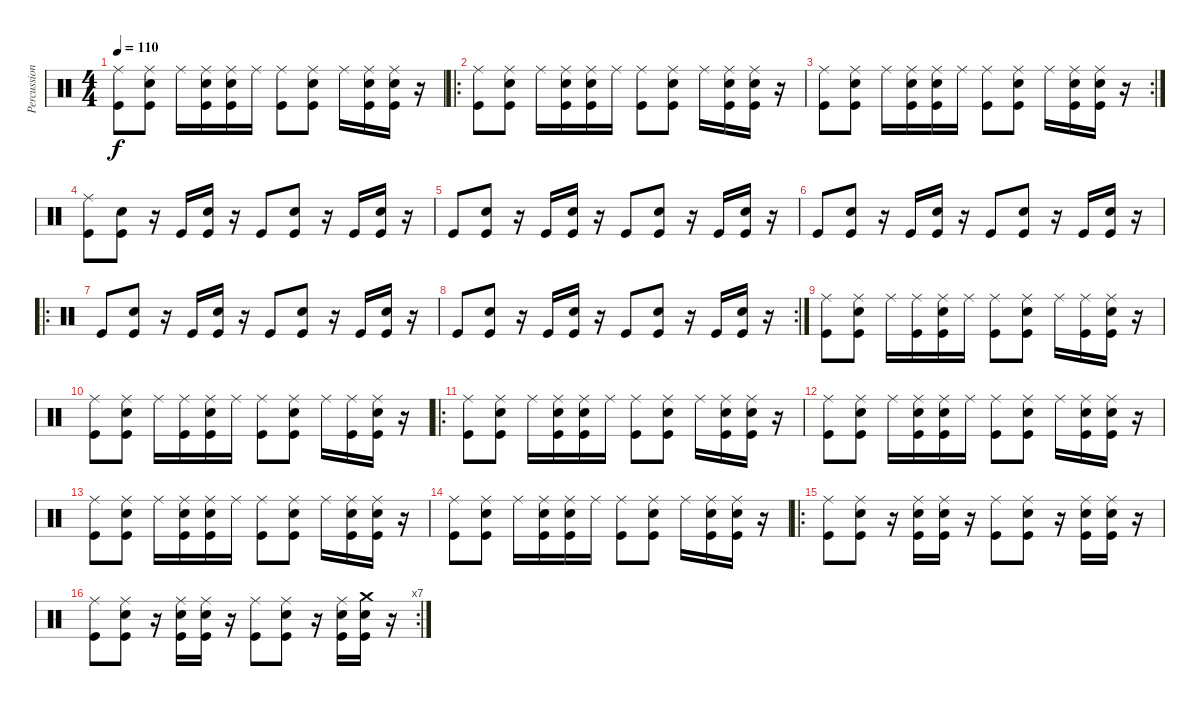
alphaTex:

\track ("Percussion" "Percussion") {instrument percussion}
\staff {score}
\articulation defaults
\ts (4 4)
\tempo 110
\clef neutral
\ks c
("Ride (middle)" "Kick (hit)").8{dy f} ("Snare (hit) 2" "Ride (middle)" "Kick (hit)").8 "Ride (middle)".16 ("Snare (hit) 2" "Ride (middle)" "Kick (hit)").16 ("Snare (hit) 2" "Ride (middle)" "Kick (hit)").16 "Ride (middle)".16 ("Ride (middle)" "Kick (hit)").8 ("Snare (hit) 2" "Ride (middle)" "Kick (hit)").8 "Ride (middle)".16 ("Snare (hit) 2" "Ride (middle)" "Kick (hit)").16 ("Snare (hit) 2" "Ride (middle)" "Kick (hit)").16 r.16 |
\ro
("Ride (middle)" "Kick (hit)").8 ("Snare (hit) 2" "Ride (middle)" "Kick (hit)").8 "Ride (middle)".16 ("Snare (hit) 2" "Ride (middle)" "Kick (hit)").16 ("Snare (hit) 2" "Ride (middle)" "Kick (hit)").16 "Ride (middle)".16 ("Ride (middle)" "Kick (hit)").8 ("Snare (hit) 2" "Ride (middle)" "Kick (hit)").8 "Ride (middle)".16 ("Snare (hit) 2" "Ride (middle)" "Kick (hit)").16 ("Snare (hit) 2" "Ride (middle)" "Kick (hit)").16 r.16 |
\rc 2
("Ride (middle)" "Kick (hit)").8 ("Snare (hit) 2" "Ride (middle)" "Kick (hit)").8 "Ride (middle)".16 ("Snare (hit) 2" "Ride (middle)" "Kick (hit)").16 ("Snare (hit) 2" "Ride (middle)" "Kick (hit)").16 "Ride (middle)".16 ("Ride (middle)" "Kick (hit)").8 ("Snare (hit) 2" "Ride (middle)" "Kick (hit)").8 "Ride (middle)".16 ("Snare (hit) 2" "Ride (middle)" "Kick (hit)").16 ("Snare (hit) 2" "Ride (middle)" "Kick (hit)").16 r.16 |
("Ride (middle)" "Kick (hit)").8 ("Snare (hit) 2" "Kick (hit)").8 r.16 "Kick (hit)".16 ("Snare (hit) 2" "Kick (hit)").16 r.16 "Kick (hit)".8 ("Snare (hit) 2" "Kick (hit)").8 r.16 "Kick (hit)".16 ("Snare (hit) 2" "Kick (hit)").16 r.16 |
"Kick (hit)".8 ("Snare (hit) 2" "Kick (hit)").8 r.16 "Kick (hit)".16 ("Snare (hit) 2" "Kick (hit)").16 r.16 "Kick (hit)".8 ("Snare (hit) 2" "Kick (hit)").8 r.16 "Kick (hit)".16 ("Snare (hit) 2" "Kick (hit)").16 r.16 |
"Kick (hit)".8 ("Snare (hit) 2" "Kick (hit)").8 r.16 "Kick (hit)".16 ("Snare (hit) 2" "Kick (hit)").16 r.16 "Kick (hit)".8 ("Snare (hit) 2" "Kick (hit)").8 r.16 "Kick (hit)".16 ("Snare (hit) 2" "Kick (hit)").16 r.16 |
\ro "Kick (hit)".8
("Snare (hit) 2" "Kick (hit)").8 r.16 "Kick (hit)".16 ("Snare (hit) 2" "Kick (hit)").16 r.16 "Kick (hit)".8 ("Snare (hit) 2" "Kick (hit)").8 r.16 "Kick (hit)".16 ("Snare (hit) 2" "Kick (hit)").16 r.16 |
\rc 2 "Kick (hit)".8
("Snare (hit) 2" "Kick (hit)").8 r.16 "Kick (hit)".16 ("Snare (hit) 2" "Kick (hit)").16 r.16 "Kick (hit)".8 ("Snare (hit) 2" "Kick (hit)").8 r.16 "Kick (hit)".16 ("Snare (hit) 2" "Kick (hit)").16 r.16 |
("Ride (middle)" "Kick (hit)").8 ("Snare (hit) 2" "Ride (middle)" "Kick (hit)").8 "Ride (middle)".16 ("Ride (middle)" "Kick (hit)").16 ("Snare (hit) 2" "Ride (middle)" "Kick (hit)").16 "Ride (middle)".16 ("Ride (middle)" "Kick (hit)").8 ("Snare (hit) 2" "Ride (middle)" "Kick (hit)").8 "Ride (middle)".16 ("Ride (middle)" "Kick (hit)").16 ("Snare (hit) 2" "Ride (middle)" "Kick (hit)").16 r.16 |
("Ride (middle)" "Kick (hit)").8 ("Snare (hit) 2" "Ride (middle)" "Kick (hit)").8 "Ride (middle)".16 ("Ride (middle)" "Kick (hit)").16 ("Snare (hit) 2" "Ride (middle)" "Kick (hit)").16 "Ride (middle)".16 ("Ride (middle)" "Kick (hit)").8 ("Snare (hit) 2" "Ride (middle)" "Kick (hit)").8 "Ride (middle)".16 ("Ride (middle)" "Kick (hit)").16 ("Snare (hit) 2" "Ride (middle)" "Kick (hit)").16 r.16 |
\ro
("Ride (middle)" "Kick (hit)").8 ("Snare (hit) 2" "Ride (middle)" "Kick (hit)").8 "Ride (middle)".16 ("Snare (hit) 2" "Ride (middle)" "Kick (hit)").16 ("Snare (hit) 2" "Ride (middle)" "Kick (hit)").16 "Ride (middle)".16 ("Ride (middle)" "Kick (hit)").8 ("Snare (hit) 2" "Ride (middle)" "Kick (hit)").8 "Ride (middle)".16 ("Snare (hit) 2" "Ride (middle)" "Kick (hit)").16 ("Snare (hit) 2" "Ride (middle)" "Kick (hit)").16 r.16 |
("Ride (middle)" "Kick (hit)").8 ("Snare (hit) 2" "Ride (middle)" "Kick (hit)").8 "Ride (middle)".16 ("Snare (hit) 2" "Ride (middle)" "Kick (hit)").16 ("Snare (hit) 2" "Ride (middle)" "Kick (hit)").16 "Ride (middle)".16 ("Ride (middle)" "Kick (hit)").8 ("Snare (hit) 2" "Ride (middle)" "Kick (hit)").8 "Ride (middle)".16 ("Snare (hit) 2" "Ride (middle)" "Kick (hit)").16 ("Snare (hit) 2" "Ride (middle)" "Kick (hit)").16 r.16 |
("Ride (middle)" "Kick (hit)").8 ("Snare (hit) 2" "Ride (middle)" "Kick (hit)").8 "Ride (middle)".16 ("Snare (hit) 2" "Ride (middle)" "Kick (hit)").16 ("Snare (hit) 2" "Ride (middle)" "Kick (hit)").16 "Ride (middle)".16 ("Ride (middle)" "Kick (hit)").8 ("Snare (hit) 2" "Ride (middle)" "Kick (hit)").8 "Ride (middle)".16 ("Snare (hit) 2" "Ride (middle)" "Kick (hit)").16 ("Snare (hit) 2" "Ride (middle)" "Kick (hit)").16 r.16 |
("Ride (middle)" "Kick (hit)").8 ("Snare (hit) 2" "Ride (middle)" "Kick (hit)").8 "Ride (middle)".16 ("Snare (hit) 2" "Ride (middle)" "Kick (hit)").16 ("Snare (hit) 2" "Ride (middle)" "Kick (hit)").16 "Ride (middle)".16 ("Ride (middle)" "Kick (hit)").8 ("Snare (hit) 2" "Ride (middle)" "Kick (hit)").8 "Ride (middle)".16 ("Snare (hit) 2" "Ride (middle)" "Kick (hit)").16 ("Snare (hit) 2" "Ride (middle)" "Kick (hit)").16 r.16 |
\ro
("Ride (middle)" "Kick (hit)").8 ("Snare (hit) 2" "Ride (middle)" "Kick (hit)").8 r.16 ("Snare (hit) 2" "Ride (middle)" "Kick (hit)").16 ("Snare (hit) 2" "Ride (middle)" "Kick (hit)").16 r.16 ("Ride (middle)" "Kick (hit)").8 ("Snare (hit) 2" "Ride (middle)" "Kick (hit)").8 r.16 ("Snare (hit) 2" "Ride (middle)" "Kick (hit)").16 ("Snare (hit) 2" "Ride (middle)" "Kick (hit)").16 r.16 |
\rc 7
("Ride (middle)" "Kick (hit)").8 ("Snare (hit) 2" "Ride (middle)" "Kick (hit)").8 r.16 ("Snare (hit) 2" "Ride (middle)" "Kick (hit)").16 ("Snare (hit) 2" "Ride (middle)" "Kick (hit)").16 r.16 ("Ride (middle)" "Kick (hit)").8 ("Snare (hit) 2" "Ride (middle)" "Kick (hit)").8 r.16 ("Snare (hit) 2" "Ride (middle)" "Kick (hit)").16 ("Snare (hit) 2" "Crash medium (hit)" "Kick (hit)").16 r.16
